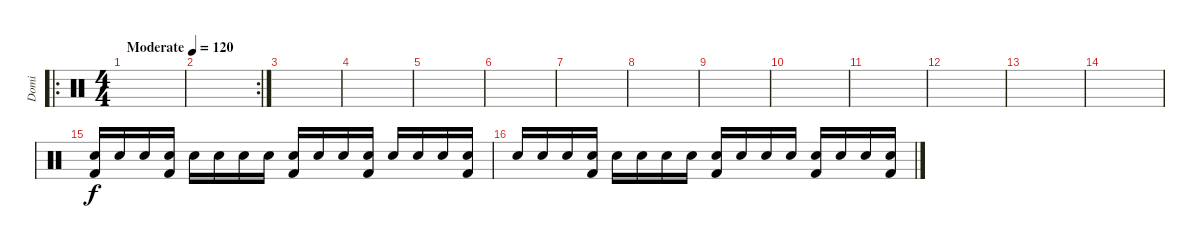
\track ("Domi" "Domi") {instrument percussion}
\staff {score}
\articulation defaults
\ro
\ts (4 4)
\tempo (120 "Moderate")
\clef neutral
\ks c
|
\rc 2
|
|
|
|
|
|
|
|
|
|
|
|
|
("Snare (hit) 2" "Kick (hit) 2").16 "Snare (hit) 2".16 "Snare (hit) 2".16 ("Snare (hit) 2" "Kick (hit) 2").16 "Snare (hit) 2".16 "Snare (hit) 2".16 "Snare (hit) 2".16 "Snare (hit) 2".16 ("Snare (hit) 2" "Kick (hit) 2").16 "Snare (hit) 2".16 "Snare (hit) 2".16 ("Snare (hit) 2" "Kick (hit) 2").16 "Snare (hit) 2".16 "Snare (hit) 2".16 "Snare (hit) 2".16 ("Snare (hit) 2" "Kick (hit) 2").16 |
"Snare (hit) 2".16 "Snare (hit) 2".16 "Snare (hit) 2".16 ("Snare (hit) 2" "Kick (hit) 2").16 "Snare (hit) 2".16 "Snare (hit) 2".16 "Snare (hit) 2".16 "Snare (hit) 2".16 ("Snare (hit) 2" "Kick (hit) 2").16 "Snare (hit) 2".16 "Snare (hit) 2".16 "Snare (hit) 2".16 ("Snare (hit) 2" "Kick (hit) 2").16 "Snare (hit) 2".16 "Snare (hit) 2".16 ("Snare (hit) 2" "Kick (hit) 2").16
